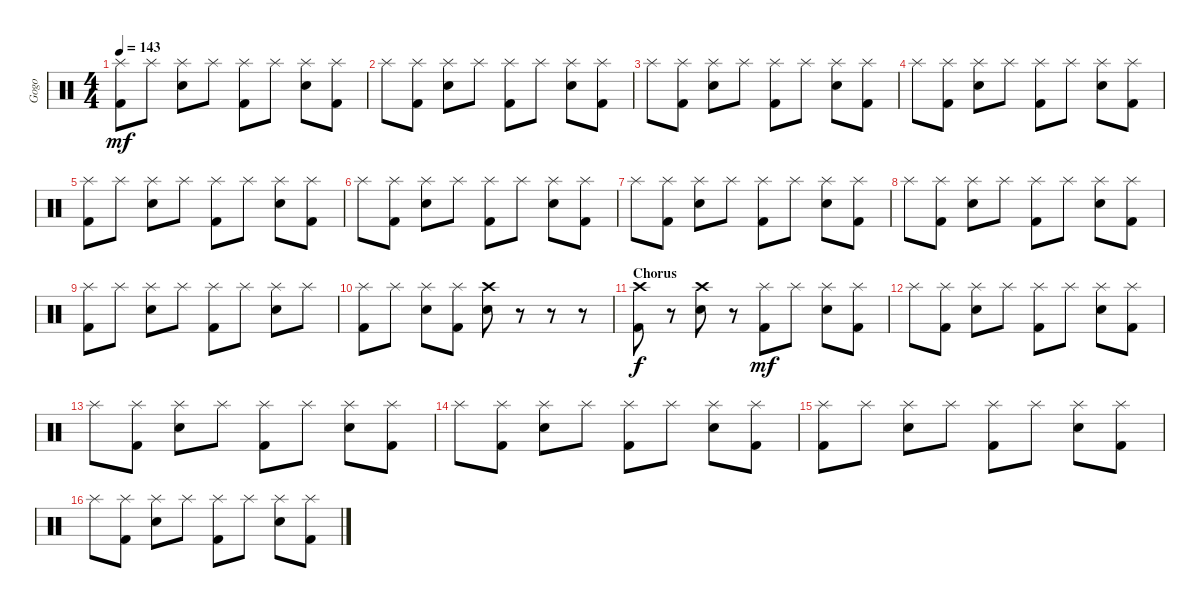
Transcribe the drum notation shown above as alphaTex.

\track ("Gogo" "Gogo") {instrument percussion}
\staff {score}
\articulation defaults
\ts (4 4)
\tempo 143
\clef neutral
\ks c
("Splash (hit)" "Kick (hit) 2").8{dy mf} "Splash (hit)".8 ("Splash (hit)" "Electric Snare (hit)").8 "Splash (hit)".8 ("Splash (hit)" "Kick (hit) 2").8 "Splash (hit)".8 ("Splash (hit)" "Electric Snare (hit)").8 ("Splash (hit)" "Kick (hit) 2").8 |
"Splash (hit)".8 ("Splash (hit)" "Kick (hit) 2").8 ("Splash (hit)" "Electric Snare (hit)").8 "Splash (hit)".8 ("Splash (hit)" "Kick (hit) 2").8 "Splash (hit)".8 ("Splash (hit)" "Electric Snare (hit)").8 ("Splash (hit)" "Kick (hit) 2").8 |
"Splash (hit)".8 ("Splash (hit)" "Kick (hit) 2").8 ("Splash (hit)" "Electric Snare (hit)").8 "Splash (hit)".8 ("Splash (hit)" "Kick (hit) 2").8 "Splash (hit)".8 ("Splash (hit)" "Electric Snare (hit)").8 ("Splash (hit)" "Kick (hit) 2").8 |
"Splash (hit)".8 ("Splash (hit)" "Kick (hit) 2").8 ("Splash (hit)" "Electric Snare (hit)").8 "Splash (hit)".8 ("Splash (hit)" "Kick (hit) 2").8 "Splash (hit)".8 ("Splash (hit)" "Electric Snare (hit)").8 ("Splash (hit)" "Kick (hit) 2").8 |
("Splash (hit)" "Kick (hit) 2").8 "Splash (hit)".8 ("Splash (hit)" "Electric Snare (hit)").8 "Splash (hit)".8 ("Splash (hit)" "Kick (hit) 2").8 "Splash (hit)".8 ("Splash (hit)" "Electric Snare (hit)").8 ("Splash (hit)" "Kick (hit) 2").8 |
"Splash (hit)".8 ("Splash (hit)" "Kick (hit) 2").8 ("Splash (hit)" "Electric Snare (hit)").8 "Splash (hit)".8 ("Splash (hit)" "Kick (hit) 2").8 "Splash (hit)".8 ("Splash (hit)" "Electric Snare (hit)").8 ("Splash (hit)" "Kick (hit) 2").8 |
"Splash (hit)".8 ("Splash (hit)" "Kick (hit) 2").8 ("Splash (hit)" "Electric Snare (hit)").8 "Splash (hit)".8 ("Splash (hit)" "Kick (hit) 2").8 "Splash (hit)".8 ("Splash (hit)" "Electric Snare (hit)").8 ("Splash (hit)" "Kick (hit) 2").8 |
"Splash (hit)".8 ("Splash (hit)" "Kick (hit) 2").8 ("Splash (hit)" "Electric Snare (hit)").8 "Splash (hit)".8 ("Splash (hit)" "Kick (hit) 2").8 "Splash (hit)".8 ("Splash (hit)" "Electric Snare (hit)").8 ("Splash (hit)" "Kick (hit) 2").8 |
("Splash (hit)" "Kick (hit) 2").8 "Splash (hit)".8 ("Splash (hit)" "Electric Snare (hit)").8 "Splash (hit)".8 ("Splash (hit)" "Kick (hit) 2").8 "Splash (hit)".8 ("Splash (hit)" "Electric Snare (hit)").8 "Splash (hit)".8 |
("Splash (hit)" "Kick (hit) 2").8 "Splash (hit)".8 ("Splash (hit)" "Electric Snare (hit)").8 ("Splash (hit)" "Kick (hit) 2").8 ("Crash high (hit)" "Electric Snare (hit)").8 r.8 r.8 r.8 |
\section ("" "Chorus")
("Crash high (hit)" "Kick (hit) 2").8{dy f} r.8 ("Crash high (hit)" "Electric Snare (hit)").8 r.8 ("Splash (hit)" "Kick (hit) 2").8{dy mf} "Splash (hit)".8 ("Splash (hit)" "Electric Snare (hit)").8 ("Splash (hit)" "Kick (hit) 2").8 |
"Splash (hit)".8 ("Splash (hit)" "Kick (hit) 2").8 ("Splash (hit)" "Electric Snare (hit)").8 "Splash (hit)".8 ("Splash (hit)" "Kick (hit) 2").8 "Splash (hit)".8 ("Splash (hit)" "Electric Snare (hit)").8 ("Splash (hit)" "Kick (hit) 2").8 |
"Splash (hit)".8 ("Splash (hit)" "Kick (hit) 2").8 ("Splash (hit)" "Electric Snare (hit)").8 "Splash (hit)".8 ("Splash (hit)" "Kick (hit) 2").8 "Splash (hit)".8 ("Splash (hit)" "Electric Snare (hit)").8 ("Splash (hit)" "Kick (hit) 2").8 |
"Splash (hit)".8 ("Splash (hit)" "Kick (hit) 2").8 ("Splash (hit)" "Electric Snare (hit)").8 "Splash (hit)".8 ("Splash (hit)" "Kick (hit) 2").8 "Splash (hit)".8 ("Splash (hit)" "Electric Snare (hit)").8 ("Splash (hit)" "Kick (hit) 2").8 |
("Splash (hit)" "Kick (hit) 2").8 "Splash (hit)".8 ("Splash (hit)" "Electric Snare (hit)").8 "Splash (hit)".8 ("Splash (hit)" "Kick (hit) 2").8 "Splash (hit)".8 ("Splash (hit)" "Electric Snare (hit)").8 ("Splash (hit)" "Kick (hit) 2").8 |
"Splash (hit)".8 ("Splash (hit)" "Kick (hit) 2").8 ("Splash (hit)" "Electric Snare (hit)").8 "Splash (hit)".8 ("Splash (hit)" "Kick (hit) 2").8 "Splash (hit)".8 ("Splash (hit)" "Electric Snare (hit)").8 ("Splash (hit)" "Kick (hit) 2").8
